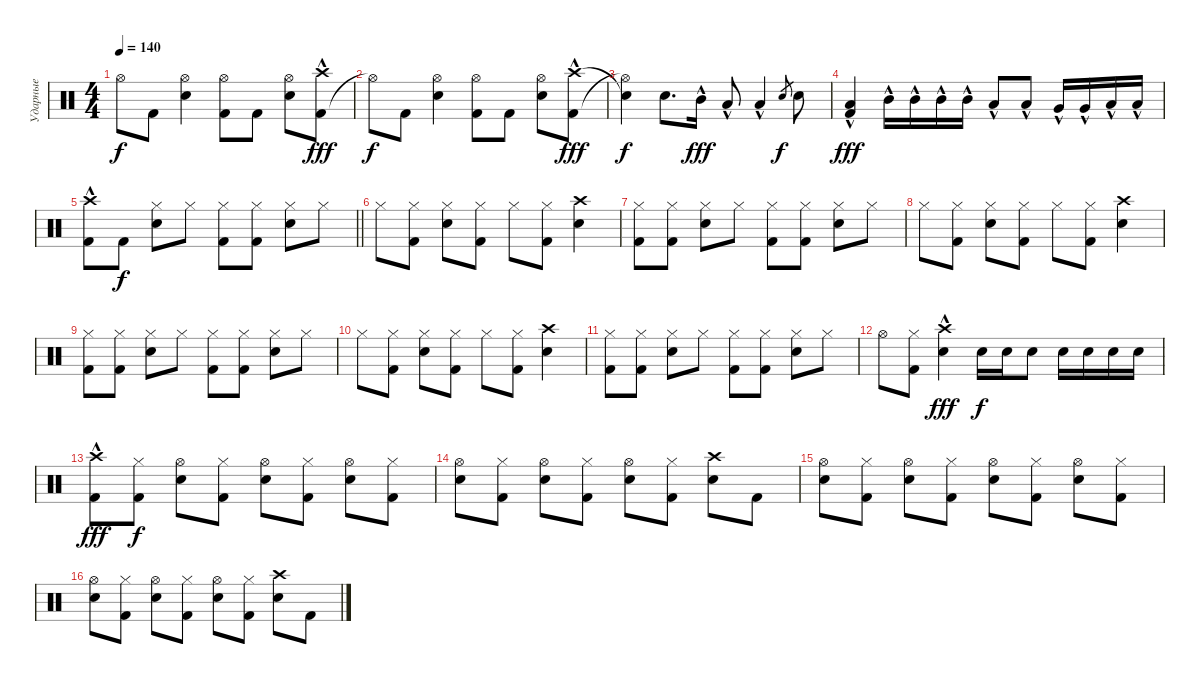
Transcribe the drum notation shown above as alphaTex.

\track ("Ударные" "Ударные") {instrument percussion}
\staff {score}
\articulation defaults
\ts (4 4)
\tempo 140
\clef neutral
\ks c "Hi-Hat (open)"{t}.8{dy f} "Kick (hit) 2".8
("Snare (hit) 2" "Hi-Hat (open)").4 ("Kick (hit) 2" "Hi-Hat (open)").8 "Kick (hit) 2".8 ("Snare (hit) 2" "Hi-Hat (open)").8 ("Kick (hit) 2" "Crash high (hit)"{hac}).8{dy fff} |
"Hi-Hat (open)"{t}.8{dy f} "Kick (hit) 2".8 ("Snare (hit) 2" "Hi-Hat (open)").4 ("Kick (hit) 2" "Hi-Hat (open)").8 "Kick (hit) 2".8 ("Snare (hit) 2" "Hi-Hat (open)").8 ("Kick (hit) 2" "Crash high (hit)"{hac}).8{dy fff} |
("Hi-Hat (open)"{t} "Snare (hit)"{t}).4{dy f} "Snare (hit) 2".8{d} "Mid Tom (hit)"{hac}.16{dy fff} "Low Tom (hit)"{hac}.8 "Low Tom (hit)"{hac}.4 "Snare (hit) 2".8{gr dy f} "Snare (hit) 2".8 |
("Kick (hit) 2" "Low Tom (hit)"{hac}).4{dy fff} "Mid Tom (hit)"{hac}.16 "Mid Tom (hit)"{hac}.16 "Mid Tom (hit)"{hac}.16 "Mid Tom (hit)"{hac}.16 "Low Tom (hit)"{hac}.8 "Low Tom (hit)"{hac}.8 "Very Low Tom (hit)"{hac}.16 "Very Low Tom (hit)"{hac}.16 "Low Floor Tom (hit)"{hac}.16 "Low Floor Tom (hit)"{hac}.16 |
\barLineRight lightlight
("Kick (hit) 2" "Crash high (hit)"{hac}).8 "Kick (hit) 2".8{dy f} ("Snare (hit) 2" "Hi-Hat (closed)").8 "Hi-Hat (closed)".8 ("Kick (hit) 2" "Hi-Hat (closed)").8 ("Kick (hit) 2" "Hi-Hat (closed)").8 ("Snare (hit) 2" "Hi-Hat (closed)").8 "Hi-Hat (closed)".8 |
"Hi-Hat (closed)".8 ("Kick (hit) 2" "Hi-Hat (closed)").8 ("Snare (hit) 2" "Hi-Hat (closed)").8 ("Kick (hit) 2" "Hi-Hat (closed)").8 "Hi-Hat (closed)".8 ("Kick (hit) 2" "Hi-Hat (closed)").8 ("Snare (hit) 2" "Crash high (hit)").4 |
("Kick (hit) 2" "Hi-Hat (closed)").8 ("Kick (hit) 2" "Hi-Hat (closed)").8 ("Snare (hit) 2" "Hi-Hat (closed)").8 "Hi-Hat (closed)".8 ("Kick (hit) 2" "Hi-Hat (closed)").8 ("Kick (hit) 2" "Hi-Hat (closed)").8 ("Snare (hit) 2" "Hi-Hat (closed)").8 "Hi-Hat (closed)".8 |
"Hi-Hat (closed)".8 ("Kick (hit) 2" "Hi-Hat (closed)").8 ("Snare (hit) 2" "Hi-Hat (closed)").8 ("Kick (hit) 2" "Hi-Hat (closed)").8 "Hi-Hat (closed)".8 ("Kick (hit) 2" "Hi-Hat (closed)").8 ("Snare (hit) 2" "Crash high (hit)").4 |
("Kick (hit) 2" "Hi-Hat (closed)").8 ("Kick (hit) 2" "Hi-Hat (closed)").8 ("Snare (hit) 2" "Hi-Hat (closed)").8 "Hi-Hat (closed)".8 ("Kick (hit) 2" "Hi-Hat (closed)").8 ("Kick (hit) 2" "Hi-Hat (closed)").8 ("Snare (hit) 2" "Hi-Hat (closed)").8 "Hi-Hat (closed)".8 |
"Hi-Hat (closed)".8 ("Kick (hit) 2" "Hi-Hat (closed)").8 ("Snare (hit) 2" "Hi-Hat (closed)").8 ("Kick (hit) 2" "Hi-Hat (closed)").8 "Hi-Hat (closed)".8 ("Kick (hit) 2" "Hi-Hat (closed)").8 ("Snare (hit) 2" "Crash high (hit)").4 |
("Kick (hit) 2" "Hi-Hat (closed)").8 ("Kick (hit) 2" "Hi-Hat (closed)").8 ("Snare (hit) 2" "Hi-Hat (closed)").8 "Hi-Hat (closed)".8 ("Kick (hit) 2" "Hi-Hat (closed)").8 ("Kick (hit) 2" "Hi-Hat (closed)").8 ("Snare (hit) 2" "Hi-Hat (closed)").8 "Hi-Hat (closed)".8 |
"Hi-Hat (open)".8 ("Kick (hit) 2" "Hi-Hat (closed)").8 ("Snare (hit) 2" "Crash high (hit)"{hac}).4{dy fff} "Snare (hit) 2".16{dy f} "Snare (hit) 2".16 "Snare (hit) 2".8 "Snare (hit) 2".16 "Snare (hit) 2".16 "Snare (hit) 2".16 "Snare (hit) 2".16 |
("Kick (hit) 2" "Crash high (hit)"{hac}).8{dy fff} ("Kick (hit) 2" "Hi-Hat (closed)").8{dy f} ("Snare (hit) 2" "Hi-Hat (open)").8 ("Kick (hit) 2" "Hi-Hat (closed)").8 ("Snare (hit) 2" "Hi-Hat (open)").8 ("Kick (hit) 2" "Hi-Hat (closed)").8 ("Snare (hit) 2" "Hi-Hat (open)").8 ("Kick (hit) 2" "Hi-Hat (closed)").8 |
("Snare (hit) 2" "Hi-Hat (open)").8 ("Kick (hit) 2" "Hi-Hat (closed)").8 ("Snare (hit) 2" "Hi-Hat (open)").8 ("Kick (hit) 2" "Hi-Hat (closed)").8 ("Snare (hit) 2" "Hi-Hat (open)").8 ("Kick (hit) 2" "Hi-Hat (closed)").8 ("Snare (hit) 2" "Crash high (hit)").8 "Kick (hit) 2".8 |
("Snare (hit) 2" "Hi-Hat (open)").8 ("Kick (hit) 2" "Hi-Hat (closed)").8 ("Snare (hit) 2" "Hi-Hat (open)").8 ("Kick (hit) 2" "Hi-Hat (closed)").8 ("Snare (hit) 2" "Hi-Hat (open)").8 ("Kick (hit) 2" "Hi-Hat (closed)").8 ("Snare (hit) 2" "Hi-Hat (open)").8 ("Kick (hit) 2" "Hi-Hat (closed)").8 |
("Snare (hit) 2" "Hi-Hat (open)").8 ("Kick (hit) 2" "Hi-Hat (closed)").8 ("Snare (hit) 2" "Hi-Hat (open)").8 ("Kick (hit) 2" "Hi-Hat (closed)").8 ("Snare (hit) 2" "Hi-Hat (open)").8 ("Kick (hit) 2" "Hi-Hat (closed)").8 ("Snare (hit) 2" "Crash high (hit)").8 "Kick (hit) 2".8
